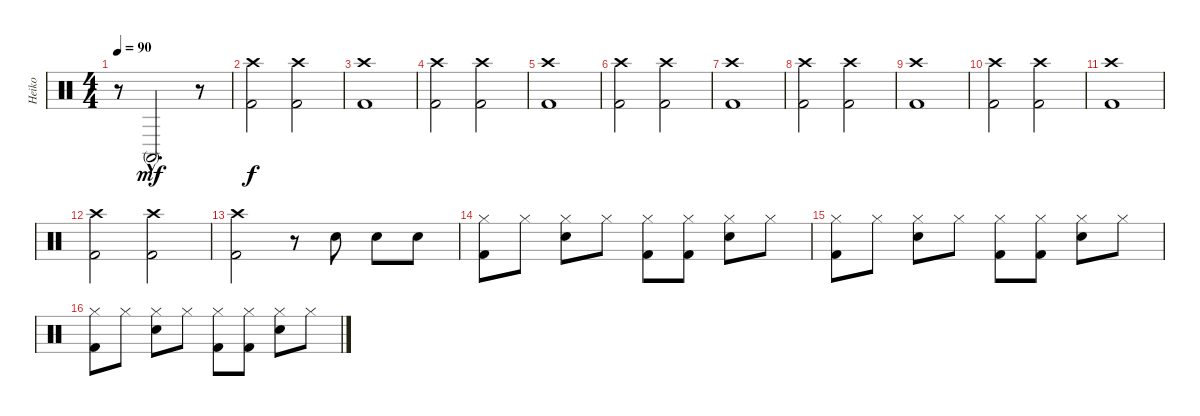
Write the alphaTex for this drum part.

\track ("Heiko" "Heiko") {instrument percussion}
\staff {score}
\articulation defaults
\ts (4 4)
\tempo 90
\clef neutral
\ks c
r.8{dy mf} "Conga high (mute)"{hac}.2{d} r.8 |
("Crash high (hit)" "Kick (hit) 2").2{dy f} ("Crash high (hit)" "Kick (hit) 2").2 |
("Crash high (hit)" "Kick (hit) 2").1 |
("Crash high (hit)" "Kick (hit) 2").2 ("Crash high (hit)" "Kick (hit) 2").2 |
("Crash high (hit)" "Kick (hit) 2").1 |
("Crash high (hit)" "Kick (hit) 2").2 ("Crash high (hit)" "Kick (hit) 2").2 |
("Crash high (hit)" "Kick (hit) 2").1 |
("Crash high (hit)" "Kick (hit) 2").2 ("Crash high (hit)" "Kick (hit) 2").2 |
("Crash high (hit)" "Kick (hit) 2").1 |
("Crash high (hit)" "Kick (hit) 2").2 ("Crash high (hit)" "Kick (hit) 2").2 |
("Crash high (hit)" "Kick (hit) 2").1 |
("Crash high (hit)" "Kick (hit) 2").2 ("Crash high (hit)" "Kick (hit) 2").2 |
("Crash high (hit)" "Kick (hit) 2").2 r.8 "Electric Snare (hit)".8 "Electric Snare (hit)".8 "Electric Snare (hit)".8 |
("Hi-Hat (closed)" "Kick (hit) 2").8 "Hi-Hat (closed)".8 ("Hi-Hat (closed)" "Electric Snare (hit)").8 "Hi-Hat (closed)".8 ("Hi-Hat (closed)" "Kick (hit) 2").8 ("Hi-Hat (closed)" "Kick (hit) 2").8 ("Hi-Hat (closed)" "Electric Snare (hit)").8 "Hi-Hat (closed)".8 |
("Hi-Hat (closed)" "Kick (hit) 2").8 "Hi-Hat (closed)".8 ("Hi-Hat (closed)" "Electric Snare (hit)").8 "Hi-Hat (closed)".8 ("Hi-Hat (closed)" "Kick (hit) 2").8 ("Hi-Hat (closed)" "Kick (hit) 2").8 ("Hi-Hat (closed)" "Electric Snare (hit)").8 "Hi-Hat (closed)".8 |
("Hi-Hat (closed)" "Kick (hit) 2").8 "Hi-Hat (closed)".8 ("Hi-Hat (closed)" "Electric Snare (hit)").8 "Hi-Hat (closed)".8 ("Hi-Hat (closed)" "Kick (hit) 2").8 ("Hi-Hat (closed)" "Kick (hit) 2").8 ("Hi-Hat (closed)" "Electric Snare (hit)").8 "Hi-Hat (closed)".8
